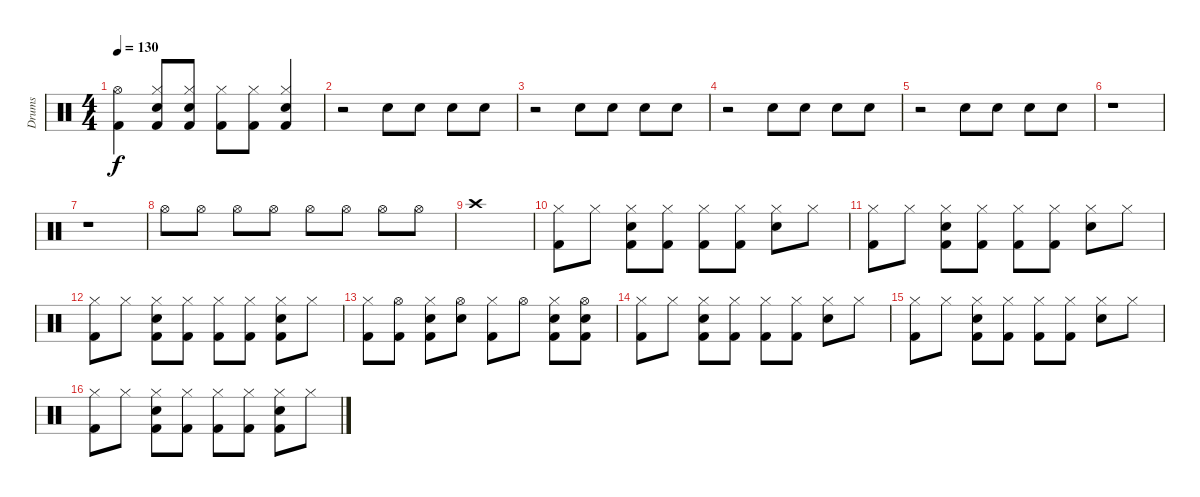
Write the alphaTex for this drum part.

\track ("Drums" "Drums") {instrument percussion}
\staff {score}
\articulation defaults
\ts (4 4)
\tempo 130
\clef neutral
\ks c
("Hi-Hat (open)" "Kick (hit) 2").4{dy f} ("Hi-Hat (closed)" "Snare (hit) 2" "Kick (hit) 2").8 ("Hi-Hat (closed)" "Snare (hit) 2" "Kick (hit) 2").8 ("Hi-Hat (closed)" "Kick (hit) 2").8 ("Hi-Hat (closed)" "Kick (hit) 2").8 ("Hi-Hat (closed)" "Snare (hit) 2" "Kick (hit) 2").4 |
r.2 "Snare (hit) 2".8 "Snare (hit) 2".8 "Snare (hit) 2".8 "Snare (hit) 2".8 |
r.2 "Snare (hit) 2".8 "Snare (hit) 2".8 "Snare (hit) 2".8 "Snare (hit) 2".8 |
r.2 "Snare (hit) 2".8 "Snare (hit) 2".8 "Snare (hit) 2".8 "Snare (hit) 2".8 |
r.2 "Snare (hit) 2".8 "Snare (hit) 2".8 "Snare (hit) 2".8 "Snare (hit) 2".8 |
r.1 |
r.1 |
"Hi-Hat (open)".8 "Hi-Hat (open)".8 "Hi-Hat (open)".8 "Hi-Hat (open)".8 "Hi-Hat (open)".8 "Hi-Hat (open)".8 "Hi-Hat (open)".8 "Hi-Hat (open)".8 |
"Crash high (hit)".1 |
("Hi-Hat (closed)" "Kick (hit) 2").8 "Hi-Hat (closed)".8 ("Hi-Hat (closed)" "Snare (hit) 2" "Kick (hit) 2").8 ("Hi-Hat (closed)" "Kick (hit) 2").8 ("Hi-Hat (closed)" "Kick (hit) 2").8 ("Hi-Hat (closed)" "Kick (hit) 2").8 ("Hi-Hat (closed)" "Snare (hit) 2").8 "Hi-Hat (closed)".8 |
("Hi-Hat (closed)" "Kick (hit) 2").8 "Hi-Hat (closed)".8 ("Hi-Hat (closed)" "Snare (hit) 2" "Kick (hit) 2").8 ("Hi-Hat (closed)" "Kick (hit) 2").8 ("Hi-Hat (closed)" "Kick (hit) 2").8 ("Hi-Hat (closed)" "Kick (hit) 2").8 ("Hi-Hat (closed)" "Snare (hit) 2").8 "Hi-Hat (closed)".8 |
("Hi-Hat (closed)" "Kick (hit) 2").8 "Hi-Hat (closed)".8 ("Hi-Hat (closed)" "Snare (hit) 2" "Kick (hit) 2").8 ("Hi-Hat (closed)" "Kick (hit) 2").8 ("Hi-Hat (closed)" "Kick (hit) 2").8 ("Hi-Hat (closed)" "Kick (hit) 2").8 ("Hi-Hat (closed)" "Snare (hit) 2" "Kick (hit) 2").8 "Hi-Hat (closed)".8 |
("Hi-Hat (closed)" "Kick (hit) 2").8 ("Hi-Hat (open)" "Kick (hit) 2").8 ("Hi-Hat (closed)" "Snare (hit) 2" "Kick (hit) 2").8 ("Hi-Hat (open)" "Snare (hit) 2").8 ("Hi-Hat (closed)" "Kick (hit) 2").8 "Hi-Hat (open)".8 ("Hi-Hat (closed)" "Snare (hit) 2" "Kick (hit) 2").8 ("Hi-Hat (open)" "Snare (hit) 2" "Kick (hit) 2").8 |
("Hi-Hat (closed)" "Kick (hit) 2").8 "Hi-Hat (closed)".8 ("Hi-Hat (closed)" "Snare (hit) 2" "Kick (hit) 2").8 ("Hi-Hat (closed)" "Kick (hit) 2").8 ("Hi-Hat (closed)" "Kick (hit) 2").8 ("Hi-Hat (closed)" "Kick (hit) 2").8 ("Hi-Hat (closed)" "Snare (hit) 2").8 "Hi-Hat (closed)".8 |
("Hi-Hat (closed)" "Kick (hit) 2").8 "Hi-Hat (closed)".8 ("Hi-Hat (closed)" "Snare (hit) 2" "Kick (hit) 2").8 ("Hi-Hat (closed)" "Kick (hit) 2").8 ("Hi-Hat (closed)" "Kick (hit) 2").8 ("Hi-Hat (closed)" "Kick (hit) 2").8 ("Hi-Hat (closed)" "Snare (hit) 2").8 "Hi-Hat (closed)".8 |
("Hi-Hat (closed)" "Kick (hit) 2").8 "Hi-Hat (closed)".8 ("Hi-Hat (closed)" "Snare (hit) 2" "Kick (hit) 2").8 ("Hi-Hat (closed)" "Kick (hit) 2").8 ("Hi-Hat (closed)" "Kick (hit) 2").8 ("Hi-Hat (closed)" "Kick (hit) 2").8 ("Hi-Hat (closed)" "Snare (hit) 2" "Kick (hit) 2").8 "Hi-Hat (closed)".8
